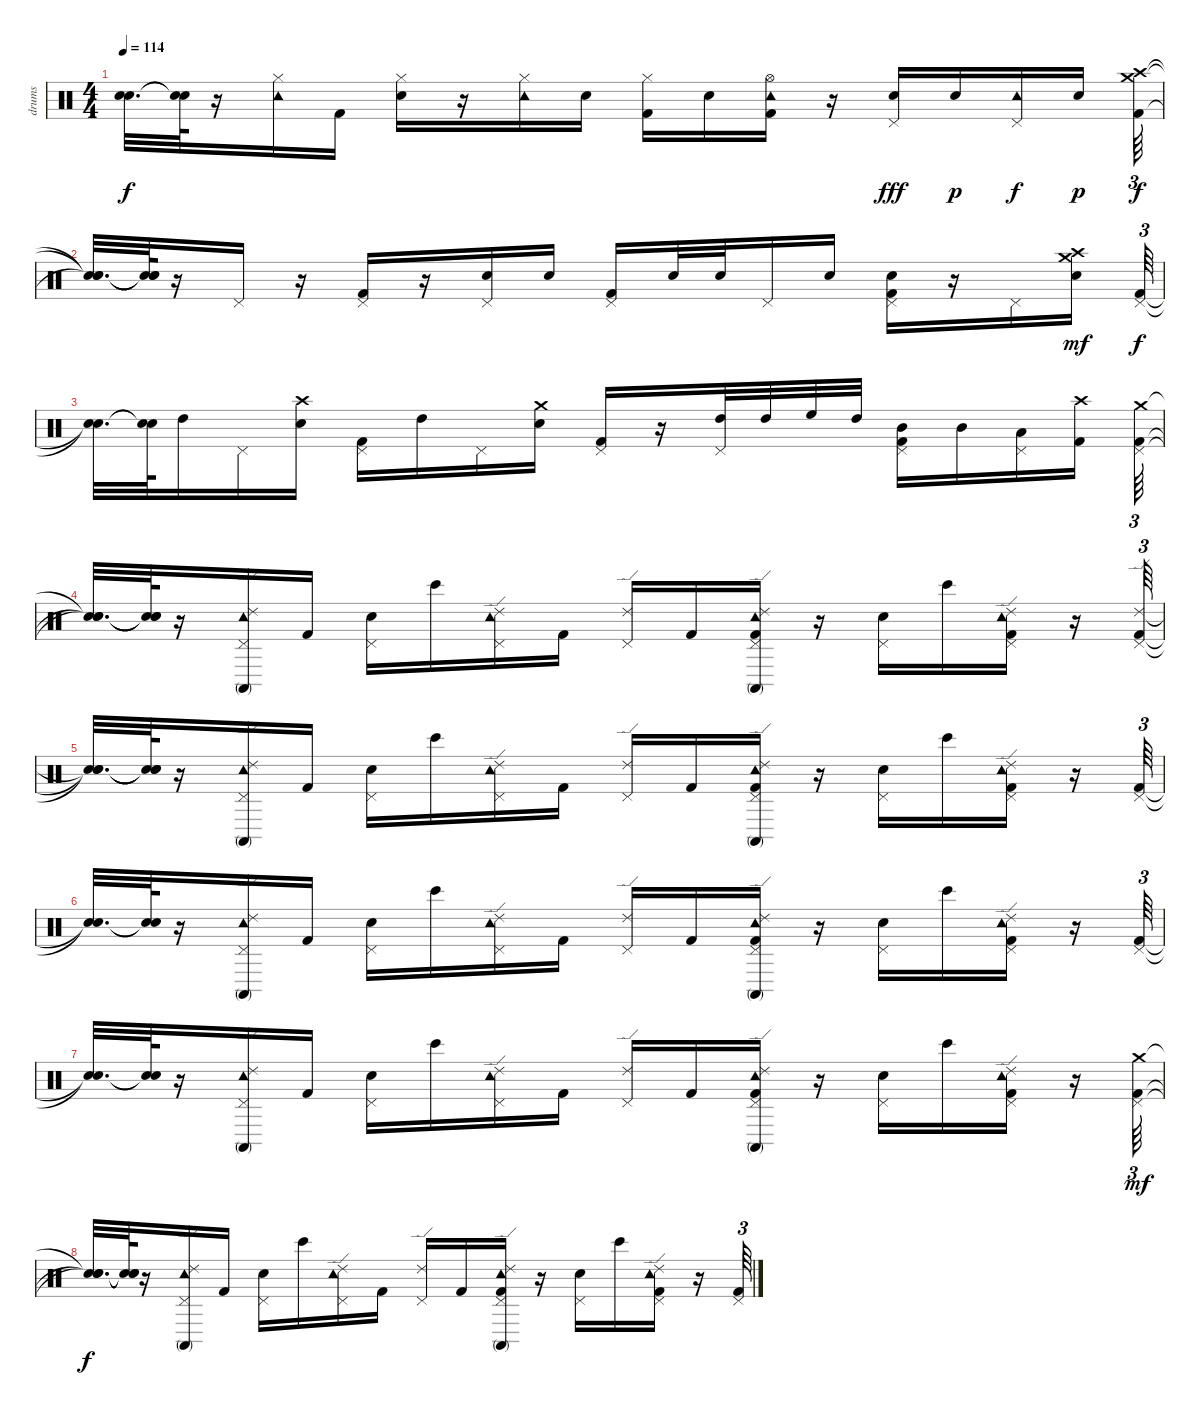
\track ("drums" "drums") {instrument percussion}
\staff {score}
\articulation defaults
\ts (4 4)
\tempo 114
\clef neutral
\ks c
("Snare (hit)"{t} "Snare (hit)"{t}).32{d dy f} ("Snare (hit)"{t} "Snare (hit)"{t}).64 r.16 ("Hi-Hat (closed)" "Tambourine (hit)").16 "Kick (hit) 2".16 ("Hi-Hat (closed)" "Electric Snare (hit)").16 r.16 ("Hi-Hat (closed)" "Tambourine (hit)").16 "Electric Snare (hit)".16 ("Kick (hit) 2" "Hi-Hat (closed)").16 "Electric Snare (hit)".16 ("Hi-Hat (open)" "Kick (hit) 2" "Tambourine (hit)").16 r.16 ("Electric Snare (hit)" "Pedal Hi-Hat (hit)").16{dy fff} "Electric Snare (hit)".16{dy p} ("Pedal Hi-Hat (hit)" "Tambourine (hit)").16{dy f} "Electric Snare (hit)".16{dy p} ("Crash medium (hit)" "Crash high (hit)" "Kick (hit) 2").64{tu (3 2) dy f} |
("Snare (hit)"{t} "Snare (hit)"{t} "Snare (hit)"{t}).32{d} ("Snare (hit)"{t} "Snare (hit)"{t} "Snare (hit)"{t}).64 r.16 "Pedal Hi-Hat (hit)".16 r.16 ("Kick (hit) 2" "Pedal Hi-Hat (hit)").16 r.16 ("Electric Snare (hit)" "Pedal Hi-Hat (hit)").16 "Electric Snare (hit)".16 ("Pedal Hi-Hat (hit)" "Kick (hit) 2").16 "Electric Snare (hit)".32 "Electric Snare (hit)".32 "Pedal Hi-Hat (hit)".16 "Electric Snare (hit)".16 ("Kick (hit) 2" "Electric Snare (hit)" "Pedal Hi-Hat (hit)").16 r.16 "Pedal Hi-Hat (hit)".16 ("Crash high (hit)" "Crash medium (hit)" "Electric Snare (hit)").16{dy mf} ("Pedal Hi-Hat (hit)" "Kick (hit) 2").64{tu (3 2) dy f} |
("Snare (hit)"{t} "Snare (hit)"{t}).32{d} ("Snare (hit)"{t} "Snare (hit)"{t}).64 "High Tom (hit)".16 "Pedal Hi-Hat (hit)".16 ("Electric Snare (hit)" "Crash high (hit)").16 ("Kick (hit) 2" "Pedal Hi-Hat (hit)").16 "High Tom (hit)".16 "Pedal Hi-Hat (hit)".16 ("Electric Snare (hit)" "Crash medium (hit)").16 ("Kick (hit) 2" "Pedal Hi-Hat (hit)").16 r.16 ("High Tom (hit)" "Pedal Hi-Hat (hit)").32 "High Tom (hit)".32 "High Floor Tom (hit)".32 "High Tom (hit)".32 ("Mid Tom (hit)" "Pedal Hi-Hat (hit)" "Kick (hit) 2").16 "Mid Tom (hit)".16 ("Low Tom (hit)" "Pedal Hi-Hat (hit)").16 ("Crash high (hit)" "Kick (hit) 2").16 ("Pedal Hi-Hat (hit)" "Crash medium (hit)" "Kick (hit) 2").64{tu (3 2)} |
("Snare (hit)"{t} "Snare (hit)"{t} "Snare (hit)"{t}).32{d} ("Snare (hit)"{t} "Snare (hit)"{t} "Snare (hit)"{t}).64 r.16 ("Pedal Hi-Hat (hit)" "Tambourine (hit)" "Conga high (mute)" "Ride (edge) 2").16 "Kick (hit) 2".16 ("Pedal Hi-Hat (hit)" "Electric Snare (hit)").16 "Bongo High (hit)".16 ("Pedal Hi-Hat (hit)" "Tambourine (hit)" "Ride (edge) 2").16 "Kick (hit) 2".16 ("Pedal Hi-Hat (hit)" "Ride (edge) 2").16 "Kick (hit) 2".16 ("Pedal Hi-Hat (hit)" "Conga high (mute)" "Tambourine (hit)" "Kick (hit) 2" "Ride (edge) 2").16 r.16 ("Pedal Hi-Hat (hit)" "Electric Snare (hit)").16 "Bongo High (hit)".16 ("Pedal Hi-Hat (hit)" "Tambourine (hit)" "Kick (hit) 2" "Ride (edge) 2").16 r.16 ("Pedal Hi-Hat (hit)" "Ride (edge) 2" "Kick (hit) 2").64{tu (3 2)} |
("Snare (hit)"{t} "Snare (hit)"{t} "Snare (hit)"{t}).32{d} ("Snare (hit)"{t} "Snare (hit)"{t} "Snare (hit)"{t}).64 r.16 ("Pedal Hi-Hat (hit)" "Tambourine (hit)" "Conga high (mute)" "Ride (edge) 2").16 "Kick (hit) 2".16 ("Pedal Hi-Hat (hit)" "Electric Snare (hit)").16 "Bongo High (hit)".16 ("Pedal Hi-Hat (hit)" "Tambourine (hit)" "Ride (edge) 2").16 "Kick (hit) 2".16 ("Pedal Hi-Hat (hit)" "Ride (edge) 2").16 "Kick (hit) 2".16 ("Pedal Hi-Hat (hit)" "Conga high (mute)" "Tambourine (hit)" "Kick (hit) 2" "Ride (edge) 2").16 r.16 ("Pedal Hi-Hat (hit)" "Electric Snare (hit)").16 "Bongo High (hit)".16 ("Pedal Hi-Hat (hit)" "Tambourine (hit)" "Kick (hit) 2" "Ride (edge) 2").16 r.16 ("Pedal Hi-Hat (hit)" "Kick (hit) 2").64{tu (3 2)} |
("Snare (hit)"{t} "Snare (hit)"{t}).32{d} ("Snare (hit)"{t} "Snare (hit)"{t}).64 r.16 ("Pedal Hi-Hat (hit)" "Tambourine (hit)" "Conga high (mute)" "Ride (edge) 2").16 "Kick (hit) 2".16 ("Pedal Hi-Hat (hit)" "Electric Snare (hit)").16 "Bongo High (hit)".16 ("Pedal Hi-Hat (hit)" "Tambourine (hit)" "Ride (edge) 2").16 "Kick (hit) 2".16 ("Pedal Hi-Hat (hit)" "Ride (edge) 2").16 "Kick (hit) 2".16 ("Pedal Hi-Hat (hit)" "Conga high (mute)" "Tambourine (hit)" "Kick (hit) 2" "Ride (edge) 2").16 r.16 ("Pedal Hi-Hat (hit)" "Electric Snare (hit)").16 "Bongo High (hit)".16 ("Pedal Hi-Hat (hit)" "Tambourine (hit)" "Ride (edge) 2" "Kick (hit) 2").16 r.16 ("Kick (hit) 2" "Pedal Hi-Hat (hit)").64{tu (3 2)} |
("Snare (hit)"{t} "Snare (hit)"{t}).32{d} ("Snare (hit)"{t} "Snare (hit)"{t}).64 r.16 ("Ride (edge) 2" "Pedal Hi-Hat (hit)" "Tambourine (hit)" "Conga high (mute)").16 "Kick (hit) 2".16 ("Electric Snare (hit)" "Pedal Hi-Hat (hit)").16 "Bongo High (hit)".16 ("Ride (edge) 2" "Pedal Hi-Hat (hit)" "Tambourine (hit)").16 "Kick (hit) 2".16 ("Ride (edge) 2" "Pedal Hi-Hat (hit)").16 "Kick (hit) 2".16 ("Kick (hit) 2" "Ride (edge) 2" "Pedal Hi-Hat (hit)" "Conga high (mute)" "Tambourine (hit)").16 r.16 ("Electric Snare (hit)" "Pedal Hi-Hat (hit)").16 "Bongo High (hit)".16 ("Ride (edge) 2" "Kick (hit) 2" "Pedal Hi-Hat (hit)" "Tambourine (hit)").16 r.16 ("Crash medium (hit)" "Kick (hit) 2" "Pedal Hi-Hat (hit)").64{tu (3 2) dy mf} |
("Snare (hit)"{t} "Snare (hit)"{t} "Snare (hit)"{t}).32{d dy f} ("Snare (hit)"{t} "Snare (hit)"{t} "Snare (hit)"{t}).64 r.16 ("Ride (edge) 2" "Pedal Hi-Hat (hit)" "Tambourine (hit)" "Conga high (mute)").16 "Kick (hit) 2".16 ("Electric Snare (hit)" "Pedal Hi-Hat (hit)").16 "Bongo High (hit)".16 ("Ride (edge) 2" "Pedal Hi-Hat (hit)" "Tambourine (hit)").16 "Kick (hit) 2".16 ("Ride (edge) 2" "Pedal Hi-Hat (hit)").16 "Kick (hit) 2".16 ("Kick (hit) 2" "Ride (edge) 2" "Pedal Hi-Hat (hit)" "Conga high (mute)" "Tambourine (hit)").16 r.16 ("Electric Snare (hit)" "Pedal Hi-Hat (hit)").16 "Bongo High (hit)".16 ("Ride (edge) 2" "Kick (hit) 2" "Pedal Hi-Hat (hit)" "Tambourine (hit)").16 r.16 ("Kick (hit) 2" "Pedal Hi-Hat (hit)").64{tu (3 2)}
